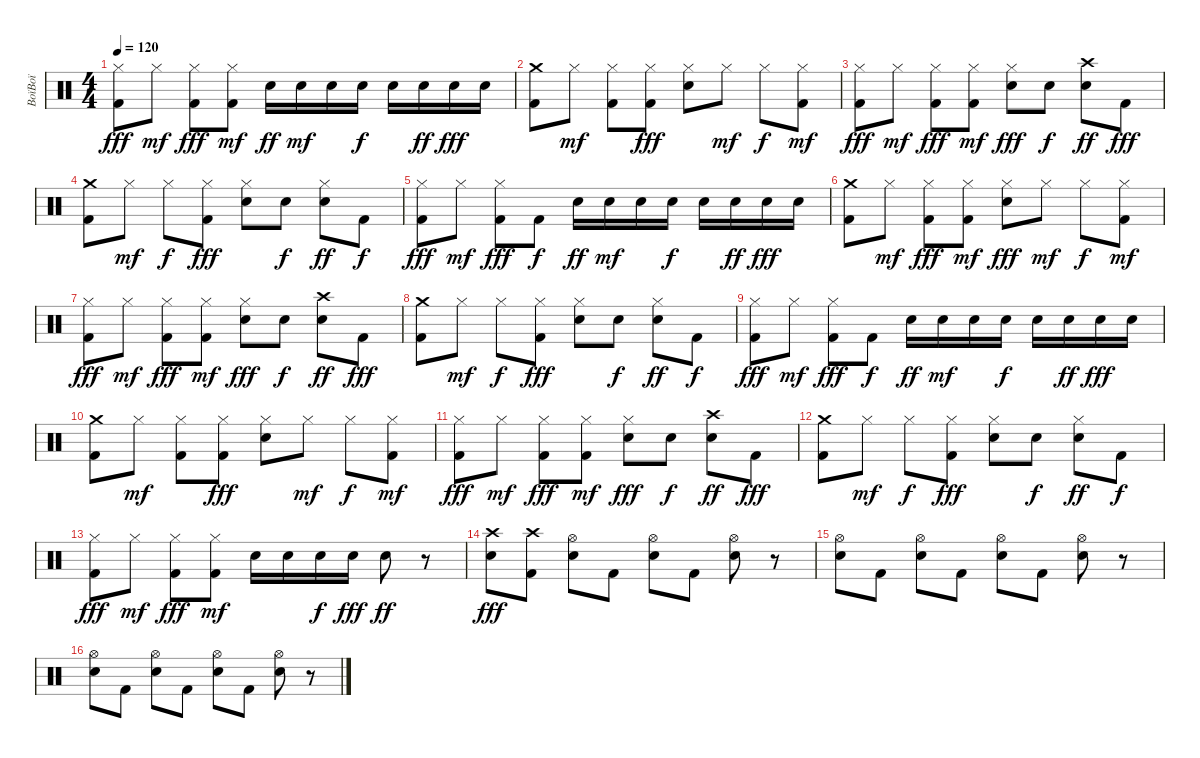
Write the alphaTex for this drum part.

\track ("BoïBoï" "BoïBoï") {instrument percussion}
\staff {score}
\articulation defaults
\ts (4 4)
\tempo 120
\clef neutral
\ks c
("Hi-Hat (closed)" "Kick (hit) 2").8{dy fff} "Hi-Hat (closed)".8{dy mf} ("Hi-Hat (closed)" "Kick (hit) 2").8{dy fff} ("Hi-Hat (closed)" "Kick (hit) 2").8{dy mf} "Electric Snare (hit)".16{dy ff} "Electric Snare (hit)".16{dy mf} "Electric Snare (hit)".16 "Electric Snare (hit)".16{dy f} "Electric Snare (hit)".16 "Electric Snare (hit)".16{dy ff} "Electric Snare (hit)".16{dy fff} "Electric Snare (hit)".16 |
("Crash medium (hit)" "Kick (hit) 2").8 "Hi-Hat (closed)".8{dy mf} ("Hi-Hat (closed)" "Kick (hit) 2").8 ("Hi-Hat (closed)" "Kick (hit) 2").8{dy fff} ("Hi-Hat (closed)" "Electric Snare (hit)").8 "Hi-Hat (closed)".8{dy mf} "Hi-Hat (closed)".8{dy f} ("Hi-Hat (closed)" "Kick (hit) 2").8{dy mf} |
("Hi-Hat (closed)" "Kick (hit) 2").8{dy fff} "Hi-Hat (closed)".8{dy mf} ("Hi-Hat (closed)" "Kick (hit) 2").8{dy fff} ("Hi-Hat (closed)" "Kick (hit) 2").8{dy mf} ("Hi-Hat (closed)" "Electric Snare (hit)").8{dy fff} "Electric Snare (hit)".8{dy f} ("Crash high (hit)" "Electric Snare (hit)").8{dy ff} "Kick (hit) 2".8{dy fff} |
("Crash medium (hit)" "Kick (hit) 2").8 "Hi-Hat (closed)".8{dy mf} "Hi-Hat (closed)".8{dy f} ("Hi-Hat (closed)" "Kick (hit) 2").8{dy fff} ("Hi-Hat (closed)" "Electric Snare (hit)").8 "Electric Snare (hit)".8{dy f} ("Hi-Hat (closed)" "Electric Snare (hit)").8{dy ff} "Kick (hit) 2".8{dy f} |
("Hi-Hat (closed)" "Kick (hit) 2").8{dy fff} "Hi-Hat (closed)".8{dy mf} ("Hi-Hat (closed)" "Kick (hit) 2").8{dy fff} "Kick (hit) 2".8{dy f} "Electric Snare (hit)".16{dy ff} "Electric Snare (hit)".16{dy mf} "Electric Snare (hit)".16 "Electric Snare (hit)".16{dy f} "Electric Snare (hit)".16 "Electric Snare (hit)".16{dy ff} "Electric Snare (hit)".16{dy fff} "Electric Snare (hit)".16 |
("Crash medium (hit)" "Kick (hit) 2").8 "Hi-Hat (closed)".8{dy mf} ("Hi-Hat (closed)" "Kick (hit) 2").8{dy fff} ("Hi-Hat (closed)" "Kick (hit) 2").8{dy mf} ("Hi-Hat (closed)" "Electric Snare (hit)").8{dy fff} "Hi-Hat (closed)".8{dy mf} "Hi-Hat (closed)".8{dy f} ("Hi-Hat (closed)" "Kick (hit) 2").8{dy mf} |
("Hi-Hat (closed)" "Kick (hit) 2").8{dy fff} "Hi-Hat (closed)".8{dy mf} ("Hi-Hat (closed)" "Kick (hit) 2").8{dy fff} ("Hi-Hat (closed)" "Kick (hit) 2").8{dy mf} ("Hi-Hat (closed)" "Electric Snare (hit)").8{dy fff} "Electric Snare (hit)".8{dy f} ("Crash high (hit)" "Electric Snare (hit)").8{dy ff} "Kick (hit) 2".8{dy fff} |
("Crash medium (hit)" "Kick (hit) 2").8 "Hi-Hat (closed)".8{dy mf} "Hi-Hat (closed)".8{dy f} ("Hi-Hat (closed)" "Kick (hit) 2").8{dy fff} ("Hi-Hat (closed)" "Electric Snare (hit)").8 "Electric Snare (hit)".8{dy f} ("Hi-Hat (closed)" "Electric Snare (hit)").8{dy ff} "Kick (hit) 2".8{dy f} |
("Hi-Hat (closed)" "Kick (hit) 2").8{dy fff} "Hi-Hat (closed)".8{dy mf} ("Hi-Hat (closed)" "Kick (hit) 2").8{dy fff} "Kick (hit) 2".8{dy f} "Electric Snare (hit)".16{dy ff} "Electric Snare (hit)".16{dy mf} "Electric Snare (hit)".16 "Electric Snare (hit)".16{dy f} "Electric Snare (hit)".16 "Electric Snare (hit)".16{dy ff} "Electric Snare (hit)".16{dy fff} "Electric Snare (hit)".16 |
("Crash medium (hit)" "Kick (hit) 2").8 "Hi-Hat (closed)".8{dy mf} ("Hi-Hat (closed)" "Kick (hit) 2").8 ("Hi-Hat (closed)" "Kick (hit) 2").8{dy fff} ("Hi-Hat (closed)" "Electric Snare (hit)").8 "Hi-Hat (closed)".8{dy mf} "Hi-Hat (closed)".8{dy f} ("Hi-Hat (closed)" "Kick (hit) 2").8{dy mf} |
("Hi-Hat (closed)" "Kick (hit) 2").8{dy fff} "Hi-Hat (closed)".8{dy mf} ("Hi-Hat (closed)" "Kick (hit) 2").8{dy fff} ("Hi-Hat (closed)" "Kick (hit) 2").8{dy mf} ("Hi-Hat (closed)" "Electric Snare (hit)").8{dy fff} "Electric Snare (hit)".8{dy f} ("Crash high (hit)" "Electric Snare (hit)").8{dy ff} "Kick (hit) 2".8{dy fff} |
("Crash medium (hit)" "Kick (hit) 2").8 "Hi-Hat (closed)".8{dy mf} "Hi-Hat (closed)".8{dy f} ("Hi-Hat (closed)" "Kick (hit) 2").8{dy fff} ("Hi-Hat (closed)" "Electric Snare (hit)").8 "Electric Snare (hit)".8{dy f} ("Hi-Hat (closed)" "Electric Snare (hit)").8{dy ff} "Kick (hit) 2".8{dy f} |
("Hi-Hat (closed)" "Kick (hit) 2").8{dy fff} "Hi-Hat (closed)".8{dy mf} ("Hi-Hat (closed)" "Kick (hit) 2").8{dy fff} ("Hi-Hat (closed)" "Kick (hit) 2").8{dy mf} "Electric Snare (hit)".16 "Electric Snare (hit)".16 "Electric Snare (hit)".16{dy f} "Electric Snare (hit)".16{dy fff} "Electric Snare (hit)".8{dy ff} r.8 |
("Crash high (hit)" "Electric Snare (hit)").8{dy fff} ("Crash high (hit)" "Kick (hit) 2").8 ("Hi-Hat (open)" "Electric Snare (hit)").8 "Kick (hit) 2".8 ("Hi-Hat (open)" "Electric Snare (hit)").8 "Kick (hit) 2".8 ("Hi-Hat (open)" "Electric Snare (hit)").8 r.8 |
("Hi-Hat (open)" "Electric Snare (hit)").8 "Kick (hit) 2".8 ("Hi-Hat (open)" "Electric Snare (hit)").8 "Kick (hit) 2".8 ("Hi-Hat (open)" "Electric Snare (hit)").8 "Kick (hit) 2".8 ("Hi-Hat (open)" "Electric Snare (hit)").8 r.8 |
("Hi-Hat (open)" "Electric Snare (hit)").8 "Kick (hit) 2".8 ("Hi-Hat (open)" "Electric Snare (hit)").8 "Kick (hit) 2".8 ("Hi-Hat (open)" "Electric Snare (hit)").8 "Kick (hit) 2".8 ("Hi-Hat (open)" "Electric Snare (hit)").8 r.8
